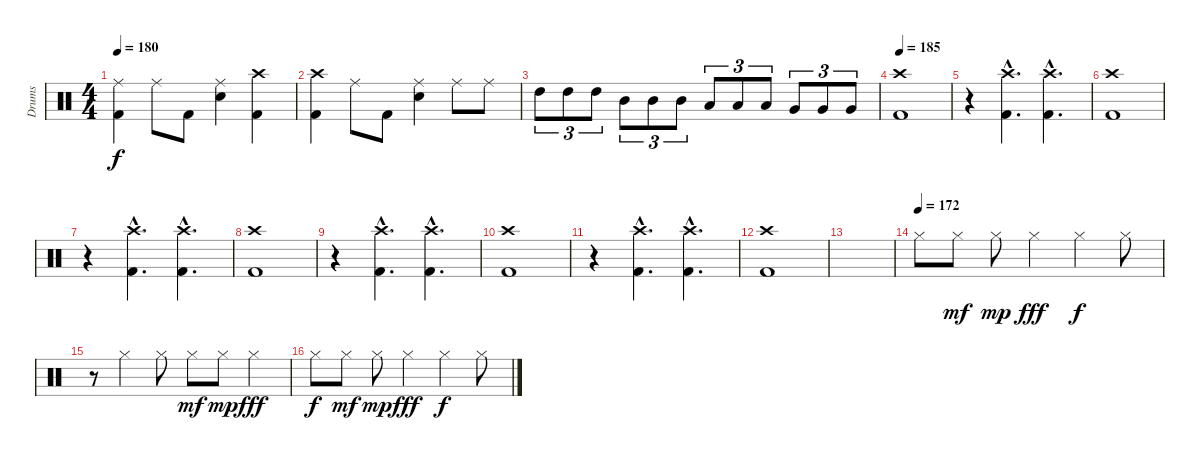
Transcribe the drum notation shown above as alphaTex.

\track ("Drums" "Drums") {instrument percussion}
\staff {score}
\articulation defaults
\ts (4 4)
\tempo 180
\clef neutral
\ks c
("Ride (middle)" "Kick (hit) 2").4{dy f} "Ride (middle)".8 "Kick (hit) 2".8 ("Ride (middle)" "Snare (hit) 2").4 ("Crash high (hit)" "Kick (hit) 2").4 |
("Crash high (hit)" "Kick (hit) 2").4 "Ride (middle)".8 "Kick (hit) 2".8 ("Ride (middle)" "Snare (hit) 2").4 "Ride (middle)".8 "Ride (middle)".8 |
"High Tom (hit)".8{tu (3 2)} "High Tom (hit)".8{tu (3 2)} "High Tom (hit)".8{tu (3 2)} "Mid Tom (hit)".8{tu (3 2)} "Mid Tom (hit)".8{tu (3 2)} "Mid Tom (hit)".8{tu (3 2)} "Low Tom (hit)".8{tu (3 2)} "Low Tom (hit)".8{tu (3 2)} "Low Tom (hit)".8{tu (3 2)} "Very Low Tom (hit)".8{tu (3 2)} "Very Low Tom (hit)".8{tu (3 2)} "Very Low Tom (hit)".8{tu (3 2)} |
\tempo 185
("Crash high (hit)" "Kick (hit) 2").1 |
r.4 ("Crash high (hit)"{hac} "Kick (hit) 2"{hac}).4{d} ("Crash high (hit)"{hac} "Kick (hit) 2"{hac}).4{d} |
("Crash high (hit)" "Kick (hit) 2").1 |
r.4 ("Crash high (hit)"{hac} "Kick (hit) 2"{hac}).4{d} ("Crash high (hit)"{hac} "Kick (hit) 2"{hac}).4{d} |
("Crash high (hit)" "Kick (hit) 2").1 |
r.4 ("Crash high (hit)"{hac} "Kick (hit) 2"{hac}).4{d} ("Crash high (hit)"{hac} "Kick (hit) 2"{hac}).4{d} |
("Crash high (hit)" "Kick (hit) 2").1 |
r.4 ("Crash high (hit)"{hac} "Kick (hit) 2"{hac}).4{d} ("Crash high (hit)"{hac} "Kick (hit) 2"{hac}).4{d} |
("Crash high (hit)" "Kick (hit) 2").1 |
|
\tempo (172)
"Hi-Hat (closed)".8 "Hi-Hat (closed)".8{dy mf} "Hi-Hat (closed)".8{dy mp} "Hi-Hat (closed)".4{dy fff} "Hi-Hat (closed)".4{dy f} "Hi-Hat (closed)".8 |
r.8 "Hi-Hat (closed)".4 "Hi-Hat (closed)".8 "Hi-Hat (closed)".8{dy mf} "Hi-Hat (closed)".8{dy mp} "Hi-Hat (closed)".4{dy fff} |
"Hi-Hat (closed)".8{dy f} "Hi-Hat (closed)".8{dy mf} "Hi-Hat (closed)".8{dy mp} "Hi-Hat (closed)".4{dy fff} "Hi-Hat (closed)".4{dy f} "Hi-Hat (closed)".8
